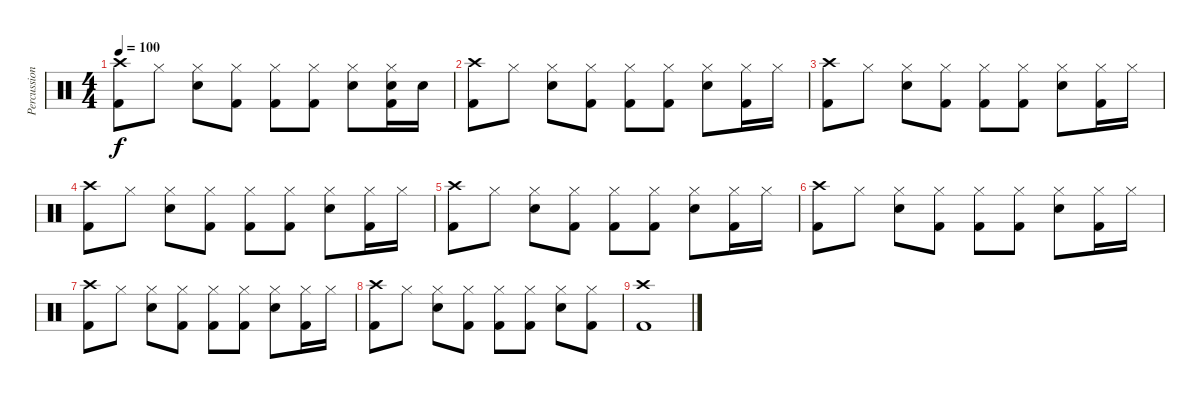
\track ("Percussion" "Percussion") {instrument percussion}
\staff {score}
\articulation defaults
\ts (4 4)
\tempo 100
\clef neutral
\ks c
("Crash high (hit)" "Kick (hit) 2").8{dy f} "Hi-Hat (closed)".8 ("Hi-Hat (closed)" "Snare (hit) 2").8 ("Hi-Hat (closed)" "Kick (hit) 2").8 ("Hi-Hat (closed)" "Kick (hit) 2").8 ("Hi-Hat (closed)" "Kick (hit) 2").8 ("Hi-Hat (closed)" "Snare (hit) 2").8 ("Hi-Hat (closed)" "Snare (hit) 2" "Kick (hit) 2").16 "Snare (hit) 2".16 |
("Crash high (hit)" "Kick (hit) 2").8 "Hi-Hat (closed)".8 ("Hi-Hat (closed)" "Snare (hit) 2").8 ("Hi-Hat (closed)" "Kick (hit) 2").8 ("Hi-Hat (closed)" "Kick (hit) 2").8 ("Hi-Hat (closed)" "Kick (hit) 2").8 ("Hi-Hat (closed)" "Snare (hit) 2").8 ("Hi-Hat (closed)" "Kick (hit) 2").16 "Hi-Hat (closed)".16 |
("Crash high (hit)" "Kick (hit) 2").8 "Hi-Hat (closed)".8 ("Hi-Hat (closed)" "Snare (hit) 2").8 ("Hi-Hat (closed)" "Kick (hit) 2").8 ("Hi-Hat (closed)" "Kick (hit) 2").8 ("Hi-Hat (closed)" "Kick (hit) 2").8 ("Hi-Hat (closed)" "Snare (hit) 2").8 ("Hi-Hat (closed)" "Kick (hit) 2").16 "Hi-Hat (closed)".16 |
("Crash high (hit)" "Kick (hit) 2").8 "Hi-Hat (closed)".8 ("Hi-Hat (closed)" "Snare (hit) 2").8 ("Hi-Hat (closed)" "Kick (hit) 2").8 ("Hi-Hat (closed)" "Kick (hit) 2").8 ("Hi-Hat (closed)" "Kick (hit) 2").8 ("Hi-Hat (closed)" "Snare (hit) 2").8 ("Hi-Hat (closed)" "Kick (hit) 2").16 "Hi-Hat (closed)".16 |
("Crash high (hit)" "Kick (hit) 2").8 "Hi-Hat (closed)".8 ("Hi-Hat (closed)" "Snare (hit) 2").8 ("Hi-Hat (closed)" "Kick (hit) 2").8 ("Hi-Hat (closed)" "Kick (hit) 2").8 ("Hi-Hat (closed)" "Kick (hit) 2").8 ("Hi-Hat (closed)" "Snare (hit) 2").8 ("Hi-Hat (closed)" "Kick (hit) 2").16 "Hi-Hat (closed)".16 |
("Crash high (hit)" "Kick (hit) 2").8 "Hi-Hat (closed)".8 ("Hi-Hat (closed)" "Snare (hit) 2").8 ("Hi-Hat (closed)" "Kick (hit) 2").8 ("Hi-Hat (closed)" "Kick (hit) 2").8 ("Hi-Hat (closed)" "Kick (hit) 2").8 ("Hi-Hat (closed)" "Snare (hit) 2").8 ("Hi-Hat (closed)" "Kick (hit) 2").16 "Hi-Hat (closed)".16 |
("Crash high (hit)" "Kick (hit) 2").8 "Hi-Hat (closed)".8 ("Hi-Hat (closed)" "Snare (hit) 2").8 ("Hi-Hat (closed)" "Kick (hit) 2").8 ("Hi-Hat (closed)" "Kick (hit) 2").8 ("Hi-Hat (closed)" "Kick (hit) 2").8 ("Hi-Hat (closed)" "Snare (hit) 2").8 ("Hi-Hat (closed)" "Kick (hit) 2").16 "Hi-Hat (closed)".16 |
("Crash high (hit)" "Kick (hit) 2").8 "Hi-Hat (closed)".8 ("Hi-Hat (closed)" "Snare (hit) 2").8 ("Hi-Hat (closed)" "Kick (hit) 2").8 ("Hi-Hat (closed)" "Kick (hit) 2").8 ("Hi-Hat (closed)" "Kick (hit) 2").8 ("Hi-Hat (closed)" "Snare (hit) 2").8 ("Hi-Hat (closed)" "Kick (hit) 2").8 |
("Crash high (hit)" "Kick (hit) 2").1
